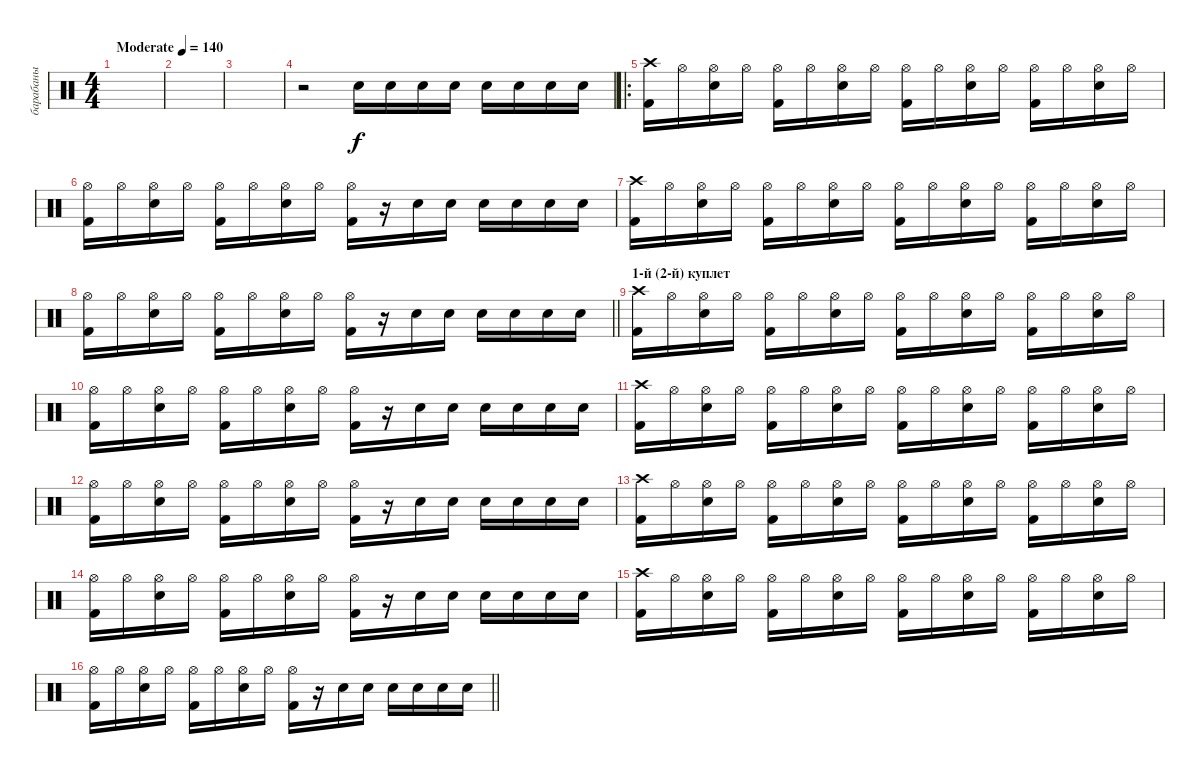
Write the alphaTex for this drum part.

\track ("барабаны" "барабаны") {instrument percussion}
\staff {score}
\articulation defaults
\ts (4 4)
\tempo (140 "Moderate")
\clef neutral
\ks c
|
|
|
r.2 "Snare (hit) 2".16 "Snare (hit) 2".16 "Snare (hit) 2".16 "Snare (hit) 2".16 "Snare (hit) 2".16 "Snare (hit) 2".16 "Snare (hit) 2".16 "Snare (hit) 2".16 |
\ro
("Crash high (hit)" "Kick (hit) 2").16 "Hi-Hat (open)".16 ("Hi-Hat (open)" "Snare (hit) 2").16 "Hi-Hat (open)".16 ("Hi-Hat (open)" "Kick (hit) 2").16 "Hi-Hat (open)".16 ("Hi-Hat (open)" "Snare (hit) 2").16 "Hi-Hat (open)".16 ("Hi-Hat (open)" "Kick (hit) 2").16 "Hi-Hat (open)".16 ("Hi-Hat (open)" "Snare (hit) 2").16 "Hi-Hat (open)".16 ("Hi-Hat (open)" "Kick (hit) 2").16 "Hi-Hat (open)".16 ("Hi-Hat (open)" "Snare (hit) 2").16 "Hi-Hat (open)".16 |
("Hi-Hat (open)" "Kick (hit) 2").16 "Hi-Hat (open)".16 ("Hi-Hat (open)" "Snare (hit) 2").16 "Hi-Hat (open)".16 ("Hi-Hat (open)" "Kick (hit) 2").16 "Hi-Hat (open)".16 ("Hi-Hat (open)" "Snare (hit) 2").16 "Hi-Hat (open)".16 ("Hi-Hat (open)" "Kick (hit) 2").16 r.16 "Snare (hit) 2".16 "Snare (hit) 2".16 "Snare (hit) 2".16 "Snare (hit) 2".16 "Snare (hit) 2".16 "Snare (hit) 2".16 |
("Crash high (hit)" "Kick (hit) 2").16 "Hi-Hat (open)".16 ("Hi-Hat (open)" "Snare (hit) 2").16 "Hi-Hat (open)".16 ("Hi-Hat (open)" "Kick (hit) 2").16 "Hi-Hat (open)".16 ("Hi-Hat (open)" "Snare (hit) 2").16 "Hi-Hat (open)".16 ("Hi-Hat (open)" "Kick (hit) 2").16 "Hi-Hat (open)".16 ("Hi-Hat (open)" "Snare (hit) 2").16 "Hi-Hat (open)".16 ("Hi-Hat (open)" "Kick (hit) 2").16 "Hi-Hat (open)".16 ("Hi-Hat (open)" "Snare (hit) 2").16 "Hi-Hat (open)".16 |
\barLineRight lightlight
("Hi-Hat (open)" "Kick (hit) 2").16 "Hi-Hat (open)".16 ("Hi-Hat (open)" "Snare (hit) 2").16 "Hi-Hat (open)".16 ("Hi-Hat (open)" "Kick (hit) 2").16 "Hi-Hat (open)".16 ("Hi-Hat (open)" "Snare (hit) 2").16 "Hi-Hat (open)".16 ("Hi-Hat (open)" "Kick (hit) 2").16 r.16 "Snare (hit) 2".16 "Snare (hit) 2".16 "Snare (hit) 2".16 "Snare (hit) 2".16 "Snare (hit) 2".16 "Snare (hit) 2".16 |
\section ("" "1-й (2-й) куплет")
("Crash high (hit)" "Kick (hit) 2").16 "Hi-Hat (open)".16 ("Hi-Hat (open)" "Snare (hit) 2").16 "Hi-Hat (open)".16 ("Hi-Hat (open)" "Kick (hit) 2").16 "Hi-Hat (open)".16 ("Hi-Hat (open)" "Snare (hit) 2").16 "Hi-Hat (open)".16 ("Hi-Hat (open)" "Kick (hit) 2").16 "Hi-Hat (open)".16 ("Hi-Hat (open)" "Snare (hit) 2").16 "Hi-Hat (open)".16 ("Hi-Hat (open)" "Kick (hit) 2").16 "Hi-Hat (open)".16 ("Hi-Hat (open)" "Snare (hit) 2").16 "Hi-Hat (open)".16 |
("Hi-Hat (open)" "Kick (hit) 2").16 "Hi-Hat (open)".16 ("Hi-Hat (open)" "Snare (hit) 2").16 "Hi-Hat (open)".16 ("Hi-Hat (open)" "Kick (hit) 2").16 "Hi-Hat (open)".16 ("Hi-Hat (open)" "Snare (hit) 2").16 "Hi-Hat (open)".16 ("Hi-Hat (open)" "Kick (hit) 2").16 r.16 "Snare (hit) 2".16 "Snare (hit) 2".16 "Snare (hit) 2".16 "Snare (hit) 2".16 "Snare (hit) 2".16 "Snare (hit) 2".16 |
("Crash high (hit)" "Kick (hit) 2").16 "Hi-Hat (open)".16 ("Hi-Hat (open)" "Snare (hit) 2").16 "Hi-Hat (open)".16 ("Hi-Hat (open)" "Kick (hit) 2").16 "Hi-Hat (open)".16 ("Hi-Hat (open)" "Snare (hit) 2").16 "Hi-Hat (open)".16 ("Hi-Hat (open)" "Kick (hit) 2").16 "Hi-Hat (open)".16 ("Hi-Hat (open)" "Snare (hit) 2").16 "Hi-Hat (open)".16 ("Hi-Hat (open)" "Kick (hit) 2").16 "Hi-Hat (open)".16 ("Hi-Hat (open)" "Snare (hit) 2").16 "Hi-Hat (open)".16 |
("Hi-Hat (open)" "Kick (hit) 2").16 "Hi-Hat (open)".16 ("Hi-Hat (open)" "Snare (hit) 2").16 "Hi-Hat (open)".16 ("Hi-Hat (open)" "Kick (hit) 2").16 "Hi-Hat (open)".16 ("Hi-Hat (open)" "Snare (hit) 2").16 "Hi-Hat (open)".16 ("Hi-Hat (open)" "Kick (hit) 2").16 r.16 "Snare (hit) 2".16 "Snare (hit) 2".16 "Snare (hit) 2".16 "Snare (hit) 2".16 "Snare (hit) 2".16 "Snare (hit) 2".16 |
("Crash high (hit)" "Kick (hit) 2").16 "Hi-Hat (open)".16 ("Hi-Hat (open)" "Snare (hit) 2").16 "Hi-Hat (open)".16 ("Hi-Hat (open)" "Kick (hit) 2").16 "Hi-Hat (open)".16 ("Hi-Hat (open)" "Snare (hit) 2").16 "Hi-Hat (open)".16 ("Hi-Hat (open)" "Kick (hit) 2").16 "Hi-Hat (open)".16 ("Hi-Hat (open)" "Snare (hit) 2").16 "Hi-Hat (open)".16 ("Hi-Hat (open)" "Kick (hit) 2").16 "Hi-Hat (open)".16 ("Hi-Hat (open)" "Snare (hit) 2").16 "Hi-Hat (open)".16 |
("Hi-Hat (open)" "Kick (hit) 2").16 "Hi-Hat (open)".16 ("Hi-Hat (open)" "Snare (hit) 2").16 "Hi-Hat (open)".16 ("Hi-Hat (open)" "Kick (hit) 2").16 "Hi-Hat (open)".16 ("Hi-Hat (open)" "Snare (hit) 2").16 "Hi-Hat (open)".16 ("Hi-Hat (open)" "Kick (hit) 2").16 r.16 "Snare (hit) 2".16 "Snare (hit) 2".16 "Snare (hit) 2".16 "Snare (hit) 2".16 "Snare (hit) 2".16 "Snare (hit) 2".16 |
("Crash high (hit)" "Kick (hit) 2").16 "Hi-Hat (open)".16 ("Hi-Hat (open)" "Snare (hit) 2").16 "Hi-Hat (open)".16 ("Hi-Hat (open)" "Kick (hit) 2").16 "Hi-Hat (open)".16 ("Hi-Hat (open)" "Snare (hit) 2").16 "Hi-Hat (open)".16 ("Hi-Hat (open)" "Kick (hit) 2").16 "Hi-Hat (open)".16 ("Hi-Hat (open)" "Snare (hit) 2").16 "Hi-Hat (open)".16 ("Hi-Hat (open)" "Kick (hit) 2").16 "Hi-Hat (open)".16 ("Hi-Hat (open)" "Snare (hit) 2").16 "Hi-Hat (open)".16 |
\barLineRight lightlight
("Hi-Hat (open)" "Kick (hit) 2").16 "Hi-Hat (open)".16 ("Hi-Hat (open)" "Snare (hit) 2").16 "Hi-Hat (open)".16 ("Hi-Hat (open)" "Kick (hit) 2").16 "Hi-Hat (open)".16 ("Hi-Hat (open)" "Snare (hit) 2").16 "Hi-Hat (open)".16 ("Hi-Hat (open)" "Kick (hit) 2").16 r.16 "Snare (hit) 2".16 "Snare (hit) 2".16 "Snare (hit) 2".16 "Snare (hit) 2".16 "Snare (hit) 2".16 "Snare (hit) 2".16
